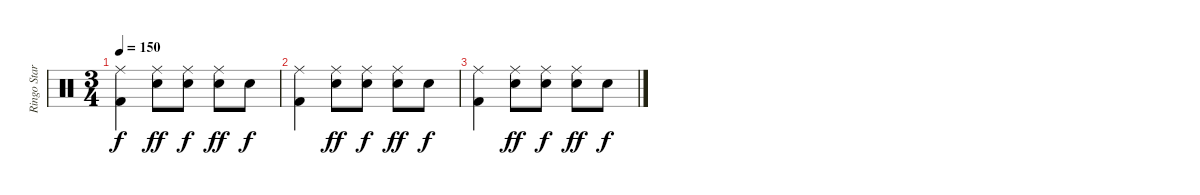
\track ("Ringo Starr (Batterie)" "Ringo Star") {instrument percussion}
\staff {score}
\articulation defaults
\ts (3 4)
\tempo 150
\clef neutral
\ks c
("Ride (middle)" "Kick (hit) 2").4{dy f} ("Ride (middle)" "Snare (hit) 2").8{dy ff} ("Ride (middle)" "Snare (hit) 2").8{dy f} ("Ride (middle)" "Snare (hit) 2").8{dy ff} "Snare (hit) 2".8{dy f} |
("Ride (middle)" "Kick (hit) 2").4 ("Ride (middle)" "Snare (hit) 2").8{dy ff} ("Ride (middle)" "Snare (hit) 2").8{dy f} ("Ride (middle)" "Snare (hit) 2").8{dy ff} "Snare (hit) 2".8{dy f} |
("Ride (middle)" "Kick (hit) 2").4 ("Ride (middle)" "Snare (hit) 2").8{dy ff} ("Ride (middle)" "Snare (hit) 2").8{dy f} ("Ride (middle)" "Snare (hit) 2").8{dy ff} "Snare (hit) 2".8{dy f}
